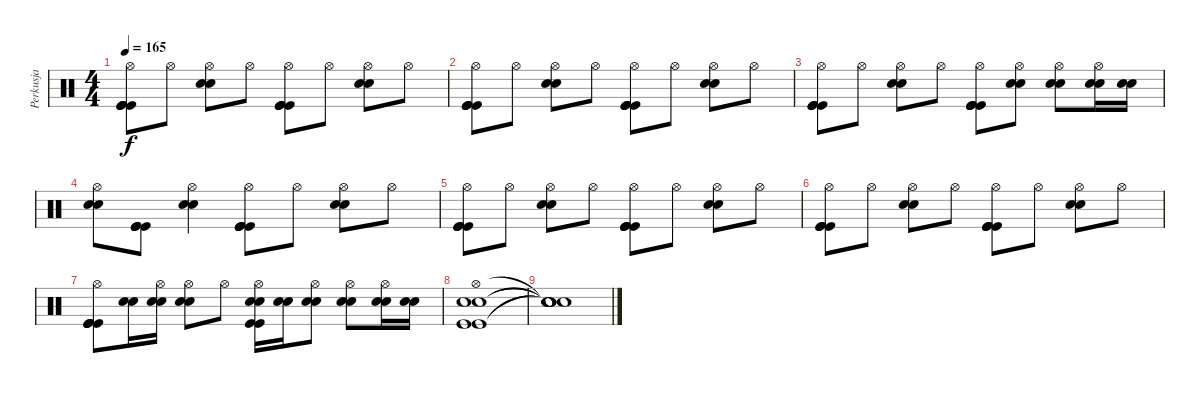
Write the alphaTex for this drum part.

\track ("Perkusja" "Perkusja") {instrument percussion}
\staff {score}
\articulation defaults
\ts (4 4)
\tempo 165
\clef neutral
\ks c
("Hi-Hat (open)" "Kick (hit)" "Kick (hit)" "Kick (hit)" "Kick (hit)").8{dy f} "Hi-Hat (open)".8 ("Hi-Hat (open)" "Snare (hit) 2" "Snare (hit) 2").8 "Hi-Hat (open)".8 ("Hi-Hat (open)" "Kick (hit)" "Kick (hit)" "Kick (hit)" "Kick (hit)").8 "Hi-Hat (open)".8 ("Hi-Hat (open)" "Snare (hit) 2" "Snare (hit) 2").8 "Hi-Hat (open)".8 |
("Hi-Hat (open)" "Kick (hit)" "Kick (hit)" "Kick (hit)" "Kick (hit)").8 "Hi-Hat (open)".8 ("Hi-Hat (open)" "Snare (hit) 2" "Snare (hit) 2").8 "Hi-Hat (open)".8 ("Hi-Hat (open)" "Kick (hit)" "Kick (hit)" "Kick (hit)" "Kick (hit)").8 "Hi-Hat (open)".8 ("Hi-Hat (open)" "Snare (hit) 2" "Snare (hit) 2").8 "Hi-Hat (open)".8 |
("Hi-Hat (open)" "Kick (hit)" "Kick (hit)" "Kick (hit)" "Kick (hit)").8 "Hi-Hat (open)".8 ("Hi-Hat (open)" "Snare (hit) 2" "Snare (hit) 2").8 "Hi-Hat (open)".8 ("Hi-Hat (open)" "Kick (hit)" "Kick (hit)" "Kick (hit)" "Kick (hit)").8 ("Hi-Hat (open)" "Snare (hit) 2" "Snare (hit) 2").8 ("Hi-Hat (open)" "Snare (hit) 2" "Snare (hit) 2").8 ("Hi-Hat (open)" "Snare (hit) 2" "Snare (hit) 2").16 ("Snare (hit) 2" "Snare (hit) 2").16 |
("Hi-Hat (open)" "Snare (hit) 2" "Snare (hit) 2").8 ("Kick (hit)" "Kick (hit)" "Kick (hit)" "Kick (hit)").8 ("Hi-Hat (open)" "Snare (hit) 2" "Snare (hit) 2").4 ("Hi-Hat (open)" "Kick (hit)" "Kick (hit)" "Kick (hit)" "Kick (hit)").8 "Hi-Hat (open)".8 ("Hi-Hat (open)" "Snare (hit) 2" "Snare (hit) 2").8 "Hi-Hat (open)".8 |
("Hi-Hat (open)" "Kick (hit)" "Kick (hit)" "Kick (hit)" "Kick (hit)").8 "Hi-Hat (open)".8 ("Hi-Hat (open)" "Snare (hit) 2" "Snare (hit) 2").8 "Hi-Hat (open)".8 ("Hi-Hat (open)" "Kick (hit)" "Kick (hit)" "Kick (hit)" "Kick (hit)").8 "Hi-Hat (open)".8 ("Hi-Hat (open)" "Snare (hit) 2" "Snare (hit) 2").8 "Hi-Hat (open)".8 |
("Hi-Hat (open)" "Kick (hit)" "Kick (hit)" "Kick (hit)" "Kick (hit)").8 "Hi-Hat (open)".8 ("Hi-Hat (open)" "Snare (hit) 2" "Snare (hit) 2").8 "Hi-Hat (open)".8 ("Hi-Hat (open)" "Kick (hit)" "Kick (hit)" "Kick (hit)" "Kick (hit)").8 "Hi-Hat (open)".8 ("Hi-Hat (open)" "Snare (hit) 2" "Snare (hit) 2").8 "Hi-Hat (open)".8 |
("Hi-Hat (open)" "Kick (hit)" "Kick (hit)" "Kick (hit)" "Kick (hit)").8 ("Snare (hit) 2" "Snare (hit) 2").16 ("Hi-Hat (open)" "Snare (hit) 2" "Snare (hit) 2").16 ("Hi-Hat (open)" "Snare (hit) 2" "Snare (hit) 2").8 "Hi-Hat (open)".8 ("Hi-Hat (open)" "Kick (hit)" "Kick (hit)" "Snare (hit) 2" "Snare (hit) 2").16 ("Snare (hit) 2" "Snare (hit) 2").16 ("Hi-Hat (open)" "Snare (hit) 2" "Snare (hit) 2").8 ("Hi-Hat (open)" "Snare (hit) 2" "Snare (hit) 2").8 ("Hi-Hat (open)" "Snare (hit) 2" "Snare (hit) 2").16 ("Snare (hit) 2" "Snare (hit) 2").16 |
("Hi-Hat (open)" "Kick (hit)" "Kick (hit)" "Snare (hit) 2" "Snare (hit) 2").1 |
("Snare (hit)"{t} "Snare (hit)"{t} "Snare (hit)"{t} "Snare (hit)"{t} "Snare (hit)"{t}).1
